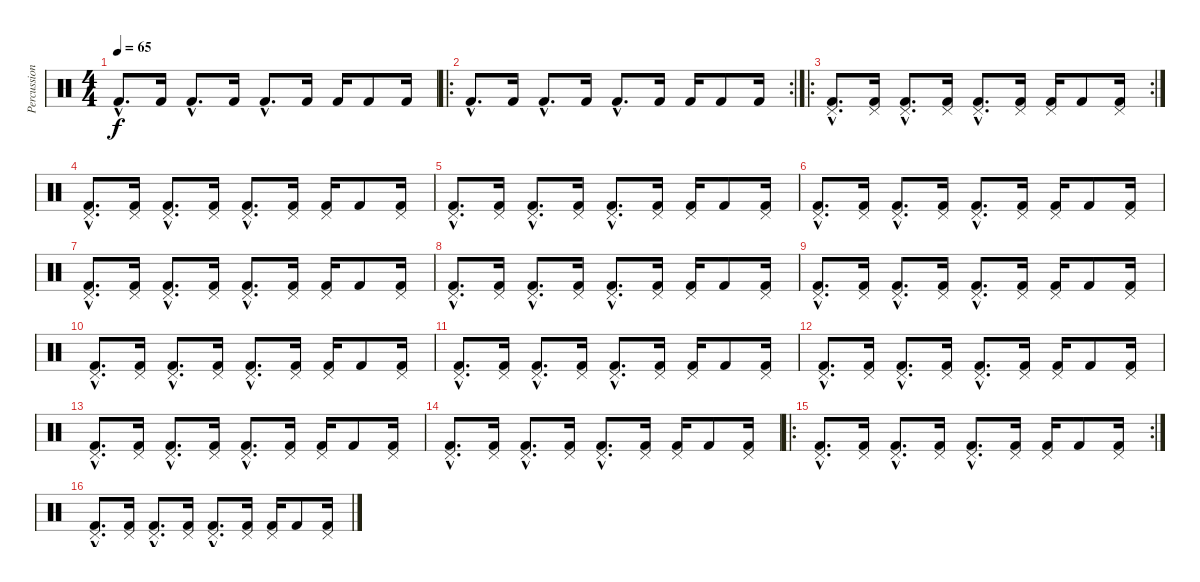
\track ("Percussions" "Percussion") {instrument percussion}
\staff {score}
\articulation defaults
\ts (4 4)
\tempo 65
\clef neutral
\ks c "Kick (hit) 2"{hac}.8{d dy f} "Kick (hit) 2".16 "Kick (hit) 2"{hac}.8{d} "Kick (hit) 2".16 "Kick (hit) 2"{hac}.8{d} "Kick (hit) 2".16 "Kick (hit) 2".16 "Kick (hit) 2".8 "Kick (hit) 2".16
|
\ro
\rc 2 "Kick (hit) 2"{hac}.8{d} "Kick (hit) 2".16 "Kick (hit) 2"{hac}.8{d} "Kick (hit) 2".16 "Kick (hit) 2"{hac}.8{d} "Kick (hit) 2".16 "Kick (hit) 2".16 "Kick (hit) 2".8 "Kick (hit) 2".16
|
\ro
\rc 2
("Kick (hit) 2"{hac} "Pedal Hi-Hat (hit)"{hac}).8{d} ("Kick (hit) 2" "Pedal Hi-Hat (hit)").16 ("Kick (hit) 2"{hac} "Pedal Hi-Hat (hit)"{hac}).8{d} ("Kick (hit) 2" "Pedal Hi-Hat (hit)").16 ("Kick (hit) 2"{hac} "Pedal Hi-Hat (hit)"{hac}).8{d} ("Kick (hit) 2" "Pedal Hi-Hat (hit)").16 ("Kick (hit) 2" "Pedal Hi-Hat (hit)").16 "Kick (hit) 2".8 ("Kick (hit) 2" "Pedal Hi-Hat (hit)").16 |
("Kick (hit) 2"{hac} "Pedal Hi-Hat (hit)"{hac}).8{d} ("Kick (hit) 2" "Pedal Hi-Hat (hit)").16 ("Kick (hit) 2"{hac} "Pedal Hi-Hat (hit)"{hac}).8{d} ("Kick (hit) 2" "Pedal Hi-Hat (hit)").16 ("Kick (hit) 2"{hac} "Pedal Hi-Hat (hit)"{hac}).8{d} ("Kick (hit) 2" "Pedal Hi-Hat (hit)").16 ("Kick (hit) 2" "Pedal Hi-Hat (hit)").16 "Kick (hit) 2".8 ("Kick (hit) 2" "Pedal Hi-Hat (hit)").16 |
("Kick (hit) 2"{hac} "Pedal Hi-Hat (hit)"{hac}).8{d} ("Kick (hit) 2" "Pedal Hi-Hat (hit)").16 ("Kick (hit) 2"{hac} "Pedal Hi-Hat (hit)"{hac}).8{d} ("Kick (hit) 2" "Pedal Hi-Hat (hit)").16 ("Kick (hit) 2"{hac} "Pedal Hi-Hat (hit)"{hac}).8{d} ("Kick (hit) 2" "Pedal Hi-Hat (hit)").16 ("Kick (hit) 2" "Pedal Hi-Hat (hit)").16 "Kick (hit) 2".8 ("Kick (hit) 2" "Pedal Hi-Hat (hit)").16 |
("Kick (hit) 2"{hac} "Pedal Hi-Hat (hit)"{hac}).8{d} ("Kick (hit) 2" "Pedal Hi-Hat (hit)").16 ("Kick (hit) 2"{hac} "Pedal Hi-Hat (hit)"{hac}).8{d} ("Kick (hit) 2" "Pedal Hi-Hat (hit)").16 ("Kick (hit) 2"{hac} "Pedal Hi-Hat (hit)"{hac}).8{d} ("Kick (hit) 2" "Pedal Hi-Hat (hit)").16 ("Kick (hit) 2" "Pedal Hi-Hat (hit)").16 "Kick (hit) 2".8 ("Kick (hit) 2" "Pedal Hi-Hat (hit)").16 |
("Kick (hit) 2"{hac} "Pedal Hi-Hat (hit)"{hac}).8{d} ("Kick (hit) 2" "Pedal Hi-Hat (hit)").16 ("Kick (hit) 2"{hac} "Pedal Hi-Hat (hit)"{hac}).8{d} ("Kick (hit) 2" "Pedal Hi-Hat (hit)").16 ("Kick (hit) 2"{hac} "Pedal Hi-Hat (hit)"{hac}).8{d} ("Kick (hit) 2" "Pedal Hi-Hat (hit)").16 ("Kick (hit) 2" "Pedal Hi-Hat (hit)").16 "Kick (hit) 2".8 ("Kick (hit) 2" "Pedal Hi-Hat (hit)").16 |
("Kick (hit) 2"{hac} "Pedal Hi-Hat (hit)"{hac}).8{d} ("Kick (hit) 2" "Pedal Hi-Hat (hit)").16 ("Kick (hit) 2"{hac} "Pedal Hi-Hat (hit)"{hac}).8{d} ("Kick (hit) 2" "Pedal Hi-Hat (hit)").16 ("Kick (hit) 2"{hac} "Pedal Hi-Hat (hit)"{hac}).8{d} ("Kick (hit) 2" "Pedal Hi-Hat (hit)").16 ("Kick (hit) 2" "Pedal Hi-Hat (hit)").16 "Kick (hit) 2".8 ("Kick (hit) 2" "Pedal Hi-Hat (hit)").16 |
("Kick (hit) 2"{hac} "Pedal Hi-Hat (hit)"{hac}).8{d} ("Kick (hit) 2" "Pedal Hi-Hat (hit)").16 ("Kick (hit) 2"{hac} "Pedal Hi-Hat (hit)"{hac}).8{d} ("Kick (hit) 2" "Pedal Hi-Hat (hit)").16 ("Kick (hit) 2"{hac} "Pedal Hi-Hat (hit)"{hac}).8{d} ("Kick (hit) 2" "Pedal Hi-Hat (hit)").16 ("Kick (hit) 2" "Pedal Hi-Hat (hit)").16 "Kick (hit) 2".8 ("Kick (hit) 2" "Pedal Hi-Hat (hit)").16 |
("Kick (hit) 2"{hac} "Pedal Hi-Hat (hit)"{hac}).8{d} ("Kick (hit) 2" "Pedal Hi-Hat (hit)").16 ("Kick (hit) 2"{hac} "Pedal Hi-Hat (hit)"{hac}).8{d} ("Kick (hit) 2" "Pedal Hi-Hat (hit)").16 ("Kick (hit) 2"{hac} "Pedal Hi-Hat (hit)"{hac}).8{d} ("Kick (hit) 2" "Pedal Hi-Hat (hit)").16 ("Kick (hit) 2" "Pedal Hi-Hat (hit)").16 "Kick (hit) 2".8 ("Kick (hit) 2" "Pedal Hi-Hat (hit)").16 |
("Kick (hit) 2"{hac} "Pedal Hi-Hat (hit)"{hac}).8{d} ("Kick (hit) 2" "Pedal Hi-Hat (hit)").16 ("Kick (hit) 2"{hac} "Pedal Hi-Hat (hit)"{hac}).8{d} ("Kick (hit) 2" "Pedal Hi-Hat (hit)").16 ("Kick (hit) 2"{hac} "Pedal Hi-Hat (hit)"{hac}).8{d} ("Kick (hit) 2" "Pedal Hi-Hat (hit)").16 ("Kick (hit) 2" "Pedal Hi-Hat (hit)").16 "Kick (hit) 2".8 ("Kick (hit) 2" "Pedal Hi-Hat (hit)").16 |
("Kick (hit) 2"{hac} "Pedal Hi-Hat (hit)"{hac}).8{d} ("Kick (hit) 2" "Pedal Hi-Hat (hit)").16 ("Kick (hit) 2"{hac} "Pedal Hi-Hat (hit)"{hac}).8{d} ("Kick (hit) 2" "Pedal Hi-Hat (hit)").16 ("Kick (hit) 2"{hac} "Pedal Hi-Hat (hit)"{hac}).8{d} ("Kick (hit) 2" "Pedal Hi-Hat (hit)").16 ("Kick (hit) 2" "Pedal Hi-Hat (hit)").16 "Kick (hit) 2".8 ("Kick (hit) 2" "Pedal Hi-Hat (hit)").16 |
("Kick (hit) 2"{hac} "Pedal Hi-Hat (hit)"{hac}).8{d} ("Kick (hit) 2" "Pedal Hi-Hat (hit)").16 ("Kick (hit) 2"{hac} "Pedal Hi-Hat (hit)"{hac}).8{d} ("Kick (hit) 2" "Pedal Hi-Hat (hit)").16 ("Kick (hit) 2"{hac} "Pedal Hi-Hat (hit)"{hac}).8{d} ("Kick (hit) 2" "Pedal Hi-Hat (hit)").16 ("Kick (hit) 2" "Pedal Hi-Hat (hit)").16 "Kick (hit) 2".8 ("Kick (hit) 2" "Pedal Hi-Hat (hit)").16 |
("Kick (hit) 2"{hac} "Pedal Hi-Hat (hit)"{hac}).8{d} ("Kick (hit) 2" "Pedal Hi-Hat (hit)").16 ("Kick (hit) 2"{hac} "Pedal Hi-Hat (hit)"{hac}).8{d} ("Kick (hit) 2" "Pedal Hi-Hat (hit)").16 ("Kick (hit) 2"{hac} "Pedal Hi-Hat (hit)"{hac}).8{d} ("Kick (hit) 2" "Pedal Hi-Hat (hit)").16 ("Kick (hit) 2" "Pedal Hi-Hat (hit)").16 "Kick (hit) 2".8 ("Kick (hit) 2" "Pedal Hi-Hat (hit)").16 |
\ro
\rc 2
("Kick (hit) 2"{hac} "Pedal Hi-Hat (hit)"{hac}).8{d} ("Kick (hit) 2" "Pedal Hi-Hat (hit)").16 ("Kick (hit) 2"{hac} "Pedal Hi-Hat (hit)"{hac}).8{d} ("Kick (hit) 2" "Pedal Hi-Hat (hit)").16 ("Kick (hit) 2"{hac} "Pedal Hi-Hat (hit)"{hac}).8{d} ("Kick (hit) 2" "Pedal Hi-Hat (hit)").16 ("Kick (hit) 2" "Pedal Hi-Hat (hit)").16 "Kick (hit) 2".8 ("Kick (hit) 2" "Pedal Hi-Hat (hit)").16 |
("Kick (hit) 2"{hac} "Pedal Hi-Hat (hit)"{hac}).8{d} ("Kick (hit) 2" "Pedal Hi-Hat (hit)").16 ("Kick (hit) 2"{hac} "Pedal Hi-Hat (hit)"{hac}).8{d} ("Kick (hit) 2" "Pedal Hi-Hat (hit)").16 ("Kick (hit) 2"{hac} "Pedal Hi-Hat (hit)"{hac}).8{d} ("Kick (hit) 2" "Pedal Hi-Hat (hit)").16 ("Kick (hit) 2" "Pedal Hi-Hat (hit)").16 "Kick (hit) 2".8 ("Kick (hit) 2" "Pedal Hi-Hat (hit)").16
